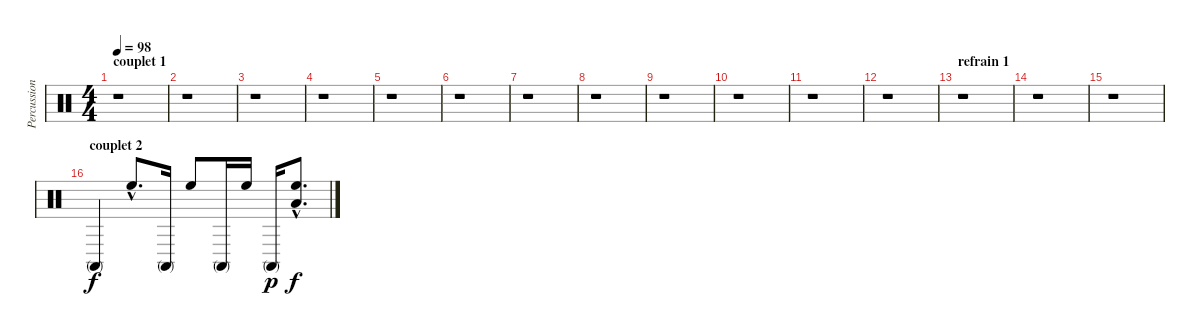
\track ("Percussions" "Percussion") {instrument percussion}
\staff {score}
\articulation defaults
\ts (4 4)
\section ("" "couplet 1")
\tempo 98
\clef neutral
\ks c
r.1{dy f} |
r.1 |
r.1 |
r.1 |
r.1 |
r.1 |
r.1 |
r.1 |
r.1 |
r.1 |
r.1 |
r.1 |
\section ("" "refrain 1")
r.1 |
r.1 |
r.1 |
\section ("" "couplet 2")
"Conga high (mute)".4 "High Floor Tom (hit)"{hac}.8{d} "Conga high (mute)".16 "High Floor Tom (hit)".8 "Conga high (mute)".16 "High Floor Tom (hit)".16 "Conga high (mute)".16{dy p} ("High Floor Tom (hit)"{hac} "Low Tom (hit)"{hac}).8{d dy f}
